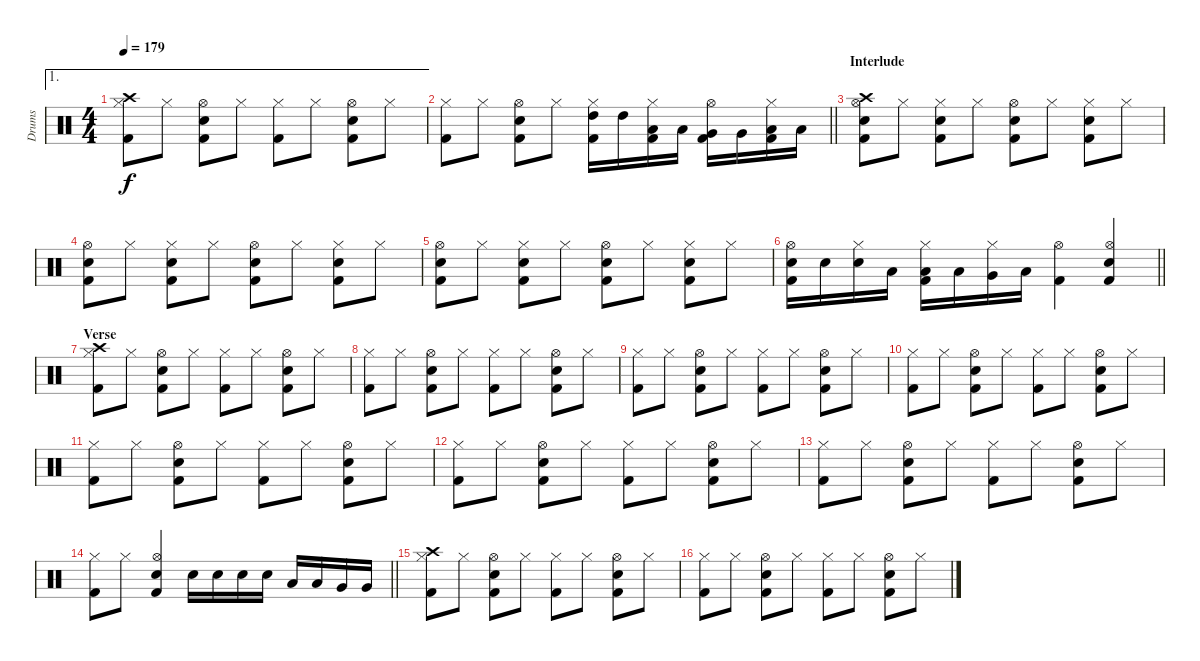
\track ("Drums" "Drums") {instrument percussion}
\staff {score}
\articulation defaults
\ae 1
\ts (4 4)
\tempo 179
\clef neutral
\ks c
("Hi-Hat (closed)" "Crash high (hit)" "Kick (hit) 2").8{dy f} "Hi-Hat (closed)".8 ("Hi-Hat (open)" "Snare (hit) 2" "Kick (hit) 2").8 "Hi-Hat (closed)".8 ("Hi-Hat (closed)" "Kick (hit) 2").8 "Hi-Hat (closed)".8 ("Hi-Hat (open)" "Snare (hit) 2" "Kick (hit) 2").8 "Hi-Hat (closed)".8 |
\barLineRight lightlight
("Hi-Hat (closed)" "Kick (hit) 2").8 "Hi-Hat (closed)".8 ("Hi-Hat (open)" "Snare (hit) 2" "Kick (hit) 2").8 "Hi-Hat (closed)".8 ("Hi-Hat (closed)" "High Tom (hit)" "Kick (hit) 2").16 "High Tom (hit)".16 ("Hi-Hat (closed)" "Low Tom (hit)" "Kick (hit) 2").16 "Low Tom (hit)".16 ("Hi-Hat (open)" "Very Low Tom (hit)" "Kick (hit) 2").16 "Very Low Tom (hit)".16 ("Hi-Hat (closed)" "Low Floor Tom (hit)" "Kick (hit) 2").16 "Low Floor Tom (hit)".16 |
\section ("" "Interlude")
("Hi-Hat (open)" "Snare (hit) 2" "Crash high (hit)" "Kick (hit) 2").8 "Hi-Hat (closed)".8 ("Hi-Hat (closed)" "Snare (hit) 2" "Kick (hit) 2").8 "Hi-Hat (closed)".8 ("Hi-Hat (open)" "Snare (hit) 2" "Kick (hit) 2").8 "Hi-Hat (closed)".8 ("Hi-Hat (closed)" "Snare (hit) 2" "Kick (hit) 2").8 "Hi-Hat (closed)".8 |
("Hi-Hat (open)" "Snare (hit) 2" "Kick (hit) 2").8 "Hi-Hat (closed)".8 ("Hi-Hat (closed)" "Snare (hit) 2" "Kick (hit) 2").8 "Hi-Hat (closed)".8 ("Hi-Hat (open)" "Snare (hit) 2" "Kick (hit) 2").8 "Hi-Hat (closed)".8 ("Hi-Hat (closed)" "Snare (hit) 2" "Kick (hit) 2").8 "Hi-Hat (closed)".8 |
("Hi-Hat (open)" "Snare (hit) 2" "Kick (hit) 2").8 "Hi-Hat (closed)".8 ("Hi-Hat (closed)" "Snare (hit) 2" "Kick (hit) 2").8 "Hi-Hat (closed)".8 ("Hi-Hat (open)" "Snare (hit) 2" "Kick (hit) 2").8 "Hi-Hat (closed)".8 ("Hi-Hat (closed)" "Snare (hit) 2" "Kick (hit) 2").8 "Hi-Hat (closed)".8 |
\barLineRight lightlight
("Hi-Hat (open)" "Snare (hit) 2" "Kick (hit) 2").16 "Snare (hit) 2".16 ("Hi-Hat (closed)" "Snare (hit) 2").16 "Low Tom (hit)".16 ("Hi-Hat (closed)" "Low Tom (hit)" "Kick (hit) 2").16 "Low Tom (hit)".16 ("Hi-Hat (closed)" "Very Low Tom (hit)").16 "Low Floor Tom (hit)".16 ("Hi-Hat (open)" "Kick (hit) 2").4 ("Hi-Hat (open)" "Snare (hit) 2" "Kick (hit) 2").4 |
\section ("" "Verse")
("Hi-Hat (closed)" "Crash high (hit)" "Kick (hit) 2").8 "Hi-Hat (closed)".8 ("Hi-Hat (open)" "Snare (hit) 2" "Kick (hit) 2").8 "Hi-Hat (closed)".8 ("Hi-Hat (closed)" "Kick (hit) 2").8 "Hi-Hat (closed)".8 ("Hi-Hat (open)" "Snare (hit) 2" "Kick (hit) 2").8 "Hi-Hat (closed)".8 |
("Hi-Hat (closed)" "Kick (hit) 2").8 "Hi-Hat (closed)".8 ("Hi-Hat (open)" "Snare (hit) 2" "Kick (hit) 2").8 "Hi-Hat (closed)".8 ("Hi-Hat (closed)" "Kick (hit) 2").8 "Hi-Hat (closed)".8 ("Hi-Hat (open)" "Snare (hit) 2" "Kick (hit) 2").8 "Hi-Hat (closed)".8 |
("Hi-Hat (closed)" "Kick (hit) 2").8 "Hi-Hat (closed)".8 ("Hi-Hat (open)" "Snare (hit) 2" "Kick (hit) 2").8 "Hi-Hat (closed)".8 ("Hi-Hat (closed)" "Kick (hit) 2").8 "Hi-Hat (closed)".8 ("Hi-Hat (open)" "Snare (hit) 2" "Kick (hit) 2").8 "Hi-Hat (closed)".8 |
("Hi-Hat (closed)" "Kick (hit) 2").8 "Hi-Hat (closed)".8 ("Hi-Hat (open)" "Snare (hit) 2" "Kick (hit) 2").8 "Hi-Hat (closed)".8 ("Hi-Hat (closed)" "Kick (hit) 2").8 "Hi-Hat (closed)".8 ("Hi-Hat (open)" "Snare (hit) 2" "Kick (hit) 2").8 "Hi-Hat (closed)".8 |
("Hi-Hat (closed)" "Kick (hit) 2").8 "Hi-Hat (closed)".8 ("Hi-Hat (open)" "Snare (hit) 2" "Kick (hit) 2").8 "Hi-Hat (closed)".8 ("Hi-Hat (closed)" "Kick (hit) 2").8 "Hi-Hat (closed)".8 ("Hi-Hat (open)" "Snare (hit) 2" "Kick (hit) 2").8 "Hi-Hat (closed)".8 |
("Hi-Hat (closed)" "Kick (hit) 2").8 "Hi-Hat (closed)".8 ("Hi-Hat (open)" "Snare (hit) 2" "Kick (hit) 2").8 "Hi-Hat (closed)".8 ("Hi-Hat (closed)" "Kick (hit) 2").8 "Hi-Hat (closed)".8 ("Hi-Hat (open)" "Snare (hit) 2" "Kick (hit) 2").8 "Hi-Hat (closed)".8 |
("Hi-Hat (closed)" "Kick (hit) 2").8 "Hi-Hat (closed)".8 ("Hi-Hat (open)" "Snare (hit) 2" "Kick (hit) 2").8 "Hi-Hat (closed)".8 ("Hi-Hat (closed)" "Kick (hit) 2").8 "Hi-Hat (closed)".8 ("Hi-Hat (open)" "Snare (hit) 2" "Kick (hit) 2").8 "Hi-Hat (closed)".8 |
\barLineRight lightlight
("Hi-Hat (closed)" "Kick (hit) 2").8 "Hi-Hat (closed)".8 ("Hi-Hat (open)" "Snare (hit) 2" "Kick (hit) 2").4 "Snare (hit) 2".16 "Snare (hit) 2".16 "Snare (hit) 2".16 "Snare (hit) 2".16 "Low Tom (hit)".16 "Low Tom (hit)".16 "Very Low Tom (hit)".16 "Very Low Tom (hit)".16 |
("Hi-Hat (closed)" "Crash high (hit)" "Kick (hit) 2").8 "Hi-Hat (closed)".8 ("Hi-Hat (open)" "Snare (hit) 2" "Kick (hit) 2").8 "Hi-Hat (closed)".8 ("Hi-Hat (closed)" "Kick (hit) 2").8 "Hi-Hat (closed)".8 ("Hi-Hat (open)" "Snare (hit) 2" "Kick (hit) 2").8 "Hi-Hat (closed)".8 |
("Hi-Hat (closed)" "Kick (hit) 2").8 "Hi-Hat (closed)".8 ("Hi-Hat (open)" "Snare (hit) 2" "Kick (hit) 2").8 "Hi-Hat (closed)".8 ("Hi-Hat (closed)" "Kick (hit) 2").8 "Hi-Hat (closed)".8 ("Hi-Hat (open)" "Snare (hit) 2" "Kick (hit) 2").8 "Hi-Hat (closed)".8
